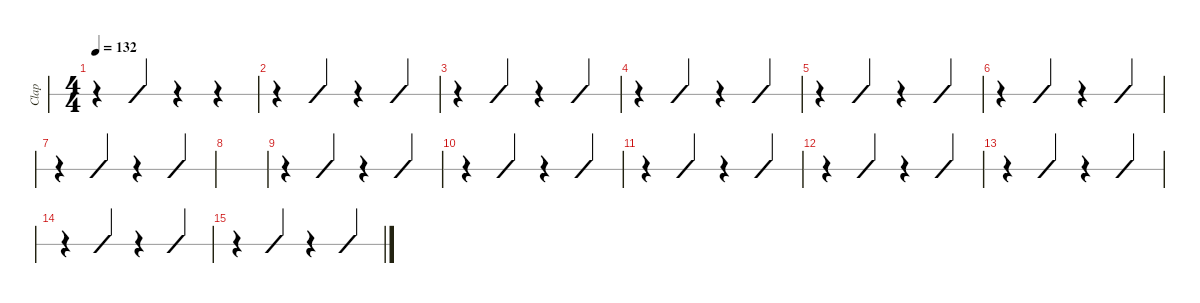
\defaultSystemsLayout 4
\hideDynamics
\bracketExtendMode nobrackets
\otherSystemsTrackNameOrientation horizontal
\track ("Hand Clap" "Clap") {instrument percussion}
\staff {slash}
\articulation defaults
\ts (4 4)
\tempo 132
\clef neutral
\ks eb
r.4{dy mf} "Kick (hit)".4 r.4 r.4 |
r.4 "Kick (hit)".4 r.4 "Kick (hit)".4 |
r.4 "Kick (hit)".4 r.4 "Kick (hit)".4 |
r.4 "Kick (hit)".4 r.4 "Kick (hit)".4 |
r.4 "Kick (hit)".4 r.4 "Kick (hit)".4 |
r.4 "Kick (hit)".4 r.4 "Kick (hit)".4 |
r.4 "Kick (hit)".4 r.4 "Kick (hit)".4 |
|
r.4 "Kick (hit)".4 r.4 "Kick (hit)".4 |
r.4 "Kick (hit)".4 r.4 "Kick (hit)".4 |
r.4 "Kick (hit)".4 r.4 "Kick (hit)".4 |
r.4 "Kick (hit)".4 r.4 "Kick (hit)".4 |
r.4 "Kick (hit)".4 r.4 "Kick (hit)".4 |
r.4 "Kick (hit)".4 r.4 "Kick (hit)".4 |
r.4 "Kick (hit)".4 r.4 "Kick (hit)".4
